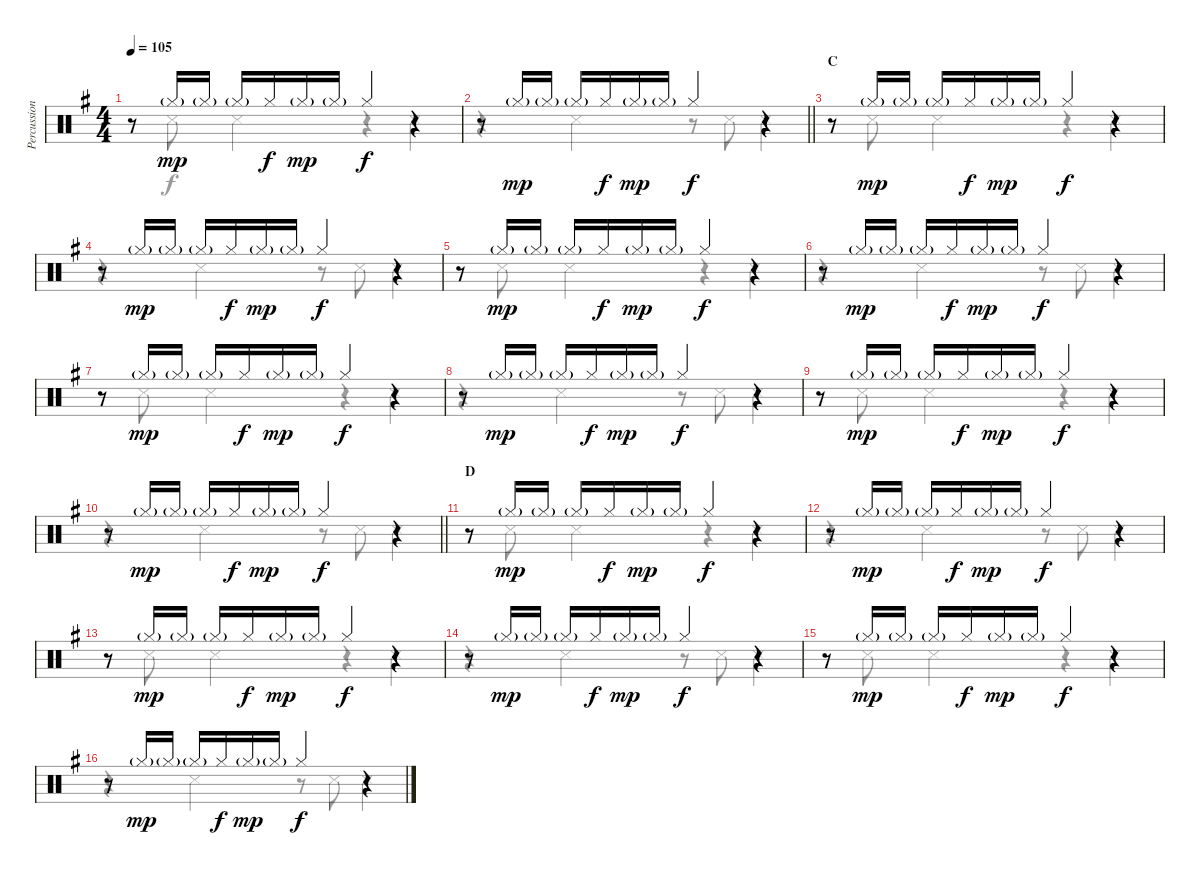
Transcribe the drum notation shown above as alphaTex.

\track ("Percussion" "Percussion") {instrument percussion}
\staff {score}
\articulation defaults
\voice
\ts (4 4)
\tempo 105
\clef neutral
\ks g
r.8{dy f} "Hi-Hat (closed)"{g}.16{dy mp} "Hi-Hat (closed)"{g}.16 "Hi-Hat (closed)"{g}.16 "Hi-Hat (closed)".16{dy f} "Hi-Hat (closed)"{g}.16{dy mp} "Hi-Hat (closed)"{g}.16 "Hi-Hat (closed)".4{dy f} r.4 |
\barLineRight lightlight
r.8 "Hi-Hat (closed)"{g}.16{dy mp} "Hi-Hat (closed)"{g}.16 "Hi-Hat (closed)"{g}.16 "Hi-Hat (closed)".16{dy f} "Hi-Hat (closed)"{g}.16{dy mp} "Hi-Hat (closed)"{g}.16 "Hi-Hat (closed)".4{dy f} r.4 |
\section ("" "C")
r.8 "Hi-Hat (closed)"{g}.16{dy mp} "Hi-Hat (closed)"{g}.16 "Hi-Hat (closed)"{g}.16 "Hi-Hat (closed)".16{dy f} "Hi-Hat (closed)"{g}.16{dy mp} "Hi-Hat (closed)"{g}.16 "Hi-Hat (closed)".4{dy f} r.4 |
r.8 "Hi-Hat (closed)"{g}.16{dy mp} "Hi-Hat (closed)"{g}.16 "Hi-Hat (closed)"{g}.16 "Hi-Hat (closed)".16{dy f} "Hi-Hat (closed)"{g}.16{dy mp} "Hi-Hat (closed)"{g}.16 "Hi-Hat (closed)".4{dy f} r.4 |
r.8 "Hi-Hat (closed)"{g}.16{dy mp} "Hi-Hat (closed)"{g}.16 "Hi-Hat (closed)"{g}.16 "Hi-Hat (closed)".16{dy f} "Hi-Hat (closed)"{g}.16{dy mp} "Hi-Hat (closed)"{g}.16 "Hi-Hat (closed)".4{dy f} r.4 |
r.8 "Hi-Hat (closed)"{g}.16{dy mp} "Hi-Hat (closed)"{g}.16 "Hi-Hat (closed)"{g}.16 "Hi-Hat (closed)".16{dy f} "Hi-Hat (closed)"{g}.16{dy mp} "Hi-Hat (closed)"{g}.16 "Hi-Hat (closed)".4{dy f} r.4 |
r.8 "Hi-Hat (closed)"{g}.16{dy mp} "Hi-Hat (closed)"{g}.16 "Hi-Hat (closed)"{g}.16 "Hi-Hat (closed)".16{dy f} "Hi-Hat (closed)"{g}.16{dy mp} "Hi-Hat (closed)"{g}.16 "Hi-Hat (closed)".4{dy f} r.4 |
r.8 "Hi-Hat (closed)"{g}.16{dy mp} "Hi-Hat (closed)"{g}.16 "Hi-Hat (closed)"{g}.16 "Hi-Hat (closed)".16{dy f} "Hi-Hat (closed)"{g}.16{dy mp} "Hi-Hat (closed)"{g}.16 "Hi-Hat (closed)".4{dy f} r.4 |
r.8 "Hi-Hat (closed)"{g}.16{dy mp} "Hi-Hat (closed)"{g}.16 "Hi-Hat (closed)"{g}.16 "Hi-Hat (closed)".16{dy f} "Hi-Hat (closed)"{g}.16{dy mp} "Hi-Hat (closed)"{g}.16 "Hi-Hat (closed)".4{dy f} r.4 |
\barLineRight lightlight
r.8 "Hi-Hat (closed)"{g}.16{dy mp} "Hi-Hat (closed)"{g}.16 "Hi-Hat (closed)"{g}.16 "Hi-Hat (closed)".16{dy f} "Hi-Hat (closed)"{g}.16{dy mp} "Hi-Hat (closed)"{g}.16 "Hi-Hat (closed)".4{dy f} r.4 |
\section ("" "D")
r.8 "Hi-Hat (closed)"{g}.16{dy mp} "Hi-Hat (closed)"{g}.16 "Hi-Hat (closed)"{g}.16 "Hi-Hat (closed)".16{dy f} "Hi-Hat (closed)"{g}.16{dy mp} "Hi-Hat (closed)"{g}.16 "Hi-Hat (closed)".4{dy f} r.4 |
r.8 "Hi-Hat (closed)"{g}.16{dy mp} "Hi-Hat (closed)"{g}.16 "Hi-Hat (closed)"{g}.16 "Hi-Hat (closed)".16{dy f} "Hi-Hat (closed)"{g}.16{dy mp} "Hi-Hat (closed)"{g}.16 "Hi-Hat (closed)".4{dy f} r.4 |
r.8 "Hi-Hat (closed)"{g}.16{dy mp} "Hi-Hat (closed)"{g}.16 "Hi-Hat (closed)"{g}.16 "Hi-Hat (closed)".16{dy f} "Hi-Hat (closed)"{g}.16{dy mp} "Hi-Hat (closed)"{g}.16 "Hi-Hat (closed)".4{dy f} r.4 |
r.8 "Hi-Hat (closed)"{g}.16{dy mp} "Hi-Hat (closed)"{g}.16 "Hi-Hat (closed)"{g}.16 "Hi-Hat (closed)".16{dy f} "Hi-Hat (closed)"{g}.16{dy mp} "Hi-Hat (closed)"{g}.16 "Hi-Hat (closed)".4{dy f} r.4 |
r.8 "Hi-Hat (closed)"{g}.16{dy mp} "Hi-Hat (closed)"{g}.16 "Hi-Hat (closed)"{g}.16 "Hi-Hat (closed)".16{dy f} "Hi-Hat (closed)"{g}.16{dy mp} "Hi-Hat (closed)"{g}.16 "Hi-Hat (closed)".4{dy f} r.4 |
r.8 "Hi-Hat (closed)"{g}.16{dy mp} "Hi-Hat (closed)"{g}.16 "Hi-Hat (closed)"{g}.16 "Hi-Hat (closed)".16{dy f} "Hi-Hat (closed)"{g}.16{dy mp} "Hi-Hat (closed)"{g}.16 "Hi-Hat (closed)".4{dy f} r.4
\voice
\clef neutral
\ottava regular
\simile none
\ks g
r.8{dy f} "Snare (side stick) 3".8 "Snare (side stick) 3".4 r.4 "Snare (side stick) 3".4 |
\barLineRight lightlight
r.4 "Snare (side stick) 3".4 r.8 "Snare (side stick) 3".8 "Snare (side stick) 3".4 |
r.8 "Snare (side stick) 3".8 "Snare (side stick) 3".4 r.4 "Snare (side stick) 3".4 |
r.4 "Snare (side stick) 3".4 r.8 "Snare (side stick) 3".8 "Snare (side stick) 3".4 |
r.8 "Snare (side stick) 3".8 "Snare (side stick) 3".4 r.4 "Snare (side stick) 3".4 |
r.4 "Snare (side stick) 3".4 r.8 "Snare (side stick) 3".8 "Snare (side stick) 3".4 |
r.8 "Snare (side stick) 3".8 "Snare (side stick) 3".4 r.4 "Snare (side stick) 3".4 |
r.4 "Snare (side stick) 3".4 r.8 "Snare (side stick) 3".8 "Snare (side stick) 3".4 |
r.8 "Snare (side stick) 3".8 "Snare (side stick) 3".4 r.4 "Snare (side stick) 3".4 |
\barLineRight lightlight
r.4 "Snare (side stick) 3".4 r.8 "Snare (side stick) 3".8 "Snare (side stick) 3".4 |
r.8 "Snare (side stick) 3".8 "Snare (side stick) 3".4 r.4 "Snare (side stick) 3".4 |
r.4 "Snare (side stick) 3".4 r.8 "Snare (side stick) 3".8 "Snare (side stick) 3".4 |
r.8 "Snare (side stick) 3".8 "Snare (side stick) 3".4 r.4 "Snare (side stick) 3".4 |
r.4 "Snare (side stick) 3".4 r.8 "Snare (side stick) 3".8 "Snare (side stick) 3".4 |
r.8 "Snare (side stick) 3".8 "Snare (side stick) 3".4 r.4 "Snare (side stick) 3".4 |
r.4 "Snare (side stick) 3".4 r.8 "Snare (side stick) 3".8 "Snare (side stick) 3".4
